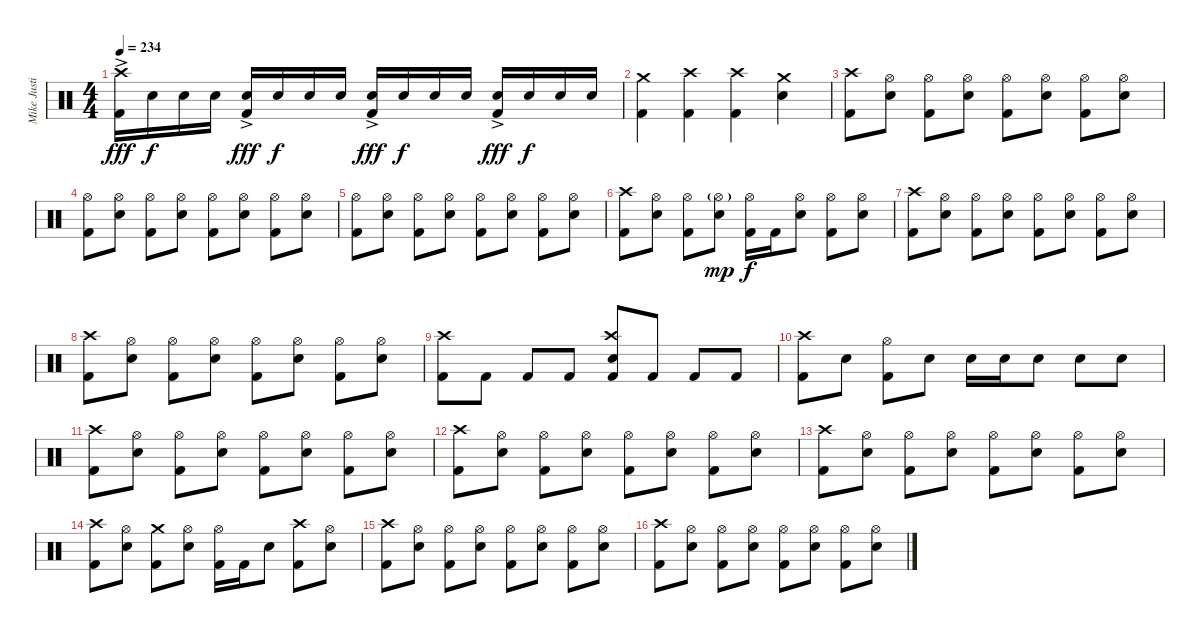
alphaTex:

\track ("Mike Justian (Drums)" "Mike Justi") {instrument percussion}
\staff {score}
\articulation defaults
\ts (4 4)
\tempo 234
\clef neutral
\ks c
("Kick (hit) 2"{ac} "Crash high (hit)").16{dy fff} "Snare (hit) 2".16{dy f} "Snare (hit) 2".16 "Snare (hit) 2".16 ("Kick (hit) 2"{ac} "Snare (hit) 2").16{dy fff} "Snare (hit) 2".16{dy f} "Snare (hit) 2".16 "Snare (hit) 2".16 ("Kick (hit) 2"{ac} "Snare (hit) 2").16{dy fff} "Snare (hit) 2".16{dy f} "Snare (hit) 2".16 "Snare (hit) 2".16 ("Kick (hit) 2"{ac} "Snare (hit) 2").16{dy fff} "Snare (hit) 2".16{dy f} "Snare (hit) 2".16 "Snare (hit) 2".16 |
("Crash medium (hit)" "Kick (hit) 2").4 ("Crash high (hit)" "Kick (hit) 2").4 ("Crash high (hit)" "Kick (hit) 2").4 ("Crash medium (hit)" "Snare (hit) 2").4 |
("Crash high (hit)" "Kick (hit) 2").8 ("Hi-Hat (open)" "Snare (hit) 2").8 ("Hi-Hat (open)" "Kick (hit) 2").8 ("Hi-Hat (open)" "Snare (hit) 2").8 ("Hi-Hat (open)" "Kick (hit) 2").8 ("Hi-Hat (open)" "Snare (hit) 2").8 ("Hi-Hat (open)" "Kick (hit) 2").8 ("Hi-Hat (open)" "Snare (hit) 2").8 |
("Hi-Hat (open)" "Kick (hit) 2").8 ("Hi-Hat (open)" "Snare (hit) 2").8 ("Hi-Hat (open)" "Kick (hit) 2").8 ("Hi-Hat (open)" "Snare (hit) 2").8 ("Hi-Hat (open)" "Kick (hit) 2").8 ("Hi-Hat (open)" "Snare (hit) 2").8 ("Hi-Hat (open)" "Kick (hit) 2").8 ("Hi-Hat (open)" "Snare (hit) 2").8 |
("Hi-Hat (open)" "Kick (hit) 2").8 ("Hi-Hat (open)" "Snare (hit) 2").8 ("Hi-Hat (open)" "Kick (hit) 2").8 ("Hi-Hat (open)" "Snare (hit) 2").8 ("Hi-Hat (open)" "Kick (hit) 2").8 ("Hi-Hat (open)" "Snare (hit) 2").8 ("Hi-Hat (open)" "Kick (hit) 2").8 ("Hi-Hat (open)" "Snare (hit) 2").8 |
("Crash high (hit)" "Kick (hit) 2").8 ("Hi-Hat (open)" "Snare (hit) 2").8 ("Hi-Hat (open)" "Kick (hit) 2").8 ("Hi-Hat (open)"{g} "Snare (hit) 2").8{dy mp} ("Hi-Hat (open)" "Kick (hit) 2").16{dy f} "Kick (hit) 2".16 ("Hi-Hat (open)" "Snare (hit) 2").8 ("Hi-Hat (open)" "Kick (hit) 2").8 ("Hi-Hat (open)" "Snare (hit) 2").8 |
("Crash high (hit)" "Kick (hit) 2").8 ("Hi-Hat (open)" "Snare (hit) 2").8 ("Hi-Hat (open)" "Kick (hit) 2").8 ("Hi-Hat (open)" "Snare (hit) 2").8 ("Hi-Hat (open)" "Kick (hit) 2").8 ("Hi-Hat (open)" "Snare (hit) 2").8 ("Hi-Hat (open)" "Kick (hit) 2").8 ("Hi-Hat (open)" "Snare (hit) 2").8 |
("Crash high (hit)" "Kick (hit) 2").8 ("Hi-Hat (open)" "Snare (hit) 2").8 ("Hi-Hat (open)" "Kick (hit) 2").8 ("Hi-Hat (open)" "Snare (hit) 2").8 ("Hi-Hat (open)" "Kick (hit) 2").8 ("Hi-Hat (open)" "Snare (hit) 2").8 ("Hi-Hat (open)" "Kick (hit) 2").8 ("Hi-Hat (open)" "Snare (hit) 2").8 |
("Crash high (hit)" "Kick (hit) 2").8 "Kick (hit) 2".8 "Kick (hit) 2".8 "Kick (hit) 2".8 ("Kick (hit) 2" "Crash high (hit)" "Snare (hit) 2").8 "Kick (hit) 2".8 "Kick (hit) 2".8 "Kick (hit) 2".8 |
("Crash high (hit)" "Kick (hit) 2").8 "Snare (hit) 2".8 ("Kick (hit) 2" "Hi-Hat (open)").8 "Snare (hit) 2".8 "Snare (hit) 2".16 "Snare (hit) 2".16 "Snare (hit) 2".8 "Snare (hit) 2".8 "Snare (hit) 2".8 |
("Crash high (hit)" "Kick (hit) 2").8 ("Hi-Hat (open)" "Snare (hit) 2").8 ("Hi-Hat (open)" "Kick (hit) 2").8 ("Hi-Hat (open)" "Snare (hit) 2").8 ("Hi-Hat (open)" "Kick (hit) 2").8 ("Hi-Hat (open)" "Snare (hit) 2").8 ("Hi-Hat (open)" "Kick (hit) 2").8 ("Hi-Hat (open)" "Snare (hit) 2").8 |
("Crash high (hit)" "Kick (hit) 2").8 ("Hi-Hat (open)" "Snare (hit) 2").8 ("Hi-Hat (open)" "Kick (hit) 2").8 ("Hi-Hat (open)" "Snare (hit) 2").8 ("Hi-Hat (open)" "Kick (hit) 2").8 ("Hi-Hat (open)" "Snare (hit) 2").8 ("Hi-Hat (open)" "Kick (hit) 2").8 ("Hi-Hat (open)" "Snare (hit) 2").8 |
("Crash high (hit)" "Kick (hit) 2").8 ("Hi-Hat (open)" "Snare (hit) 2").8 ("Hi-Hat (open)" "Kick (hit) 2").8 ("Hi-Hat (open)" "Snare (hit) 2").8 ("Hi-Hat (open)" "Kick (hit) 2").8 ("Hi-Hat (open)" "Snare (hit) 2").8 ("Hi-Hat (open)" "Kick (hit) 2").8 ("Hi-Hat (open)" "Snare (hit) 2").8 |
("Crash high (hit)" "Kick (hit) 2").8 ("Hi-Hat (open)" "Snare (hit) 2").8 ("Crash medium (hit)" "Kick (hit) 2").8 ("Hi-Hat (open)" "Snare (hit) 2").8 ("Hi-Hat (open)" "Kick (hit) 2").16 "Kick (hit) 2".16 "Snare (hit) 2".8 ("Crash high (hit)" "Kick (hit) 2").8 ("Hi-Hat (open)" "Snare (hit) 2").8 |
("Crash high (hit)" "Kick (hit) 2").8 ("Hi-Hat (open)" "Snare (hit) 2").8 ("Hi-Hat (open)" "Kick (hit) 2").8 ("Hi-Hat (open)" "Snare (hit) 2").8 ("Hi-Hat (open)" "Kick (hit) 2").8 ("Hi-Hat (open)" "Snare (hit) 2").8 ("Hi-Hat (open)" "Kick (hit) 2").8 ("Hi-Hat (open)" "Snare (hit) 2").8 |
("Crash high (hit)" "Kick (hit) 2").8 ("Hi-Hat (open)" "Snare (hit) 2").8 ("Hi-Hat (open)" "Kick (hit) 2").8 ("Hi-Hat (open)" "Snare (hit) 2").8 ("Hi-Hat (open)" "Kick (hit) 2").8 ("Hi-Hat (open)" "Snare (hit) 2").8 ("Hi-Hat (open)" "Kick (hit) 2").8 ("Hi-Hat (open)" "Snare (hit) 2").8
